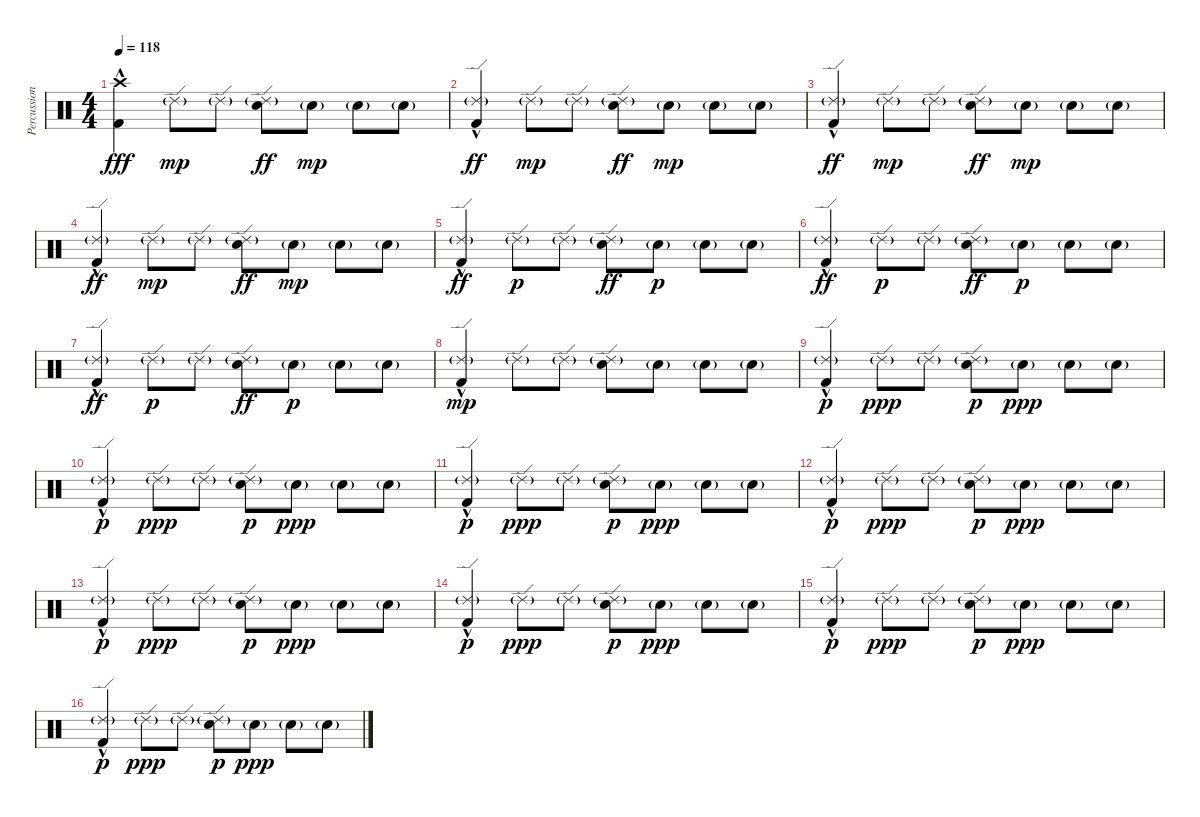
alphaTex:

\track ("Percussion" "Percussion") {instrument percussion}
\staff {score}
\articulation defaults
\ts (4 4)
\tempo 118
\clef neutral
\ks c
("Crash high (hit)" "Kick (hit) 2"{hac}).4{dy fff} "Ride (edge) 2"{g}.8{dy mp} "Ride (edge) 2"{g}.8 ("Ride (edge) 2"{g} "Electric Snare (hit)").8{dy ff} "Electric Snare (hit)"{g}.8{dy mp} "Electric Snare (hit)"{g}.8 "Electric Snare (hit)"{g}.8 |
("Ride (edge) 2"{g} "Kick (hit) 2"{hac}).4{dy ff} "Ride (edge) 2"{g}.8{dy mp} "Ride (edge) 2"{g}.8 ("Ride (edge) 2"{g} "Electric Snare (hit)").8{dy ff} "Electric Snare (hit)"{g}.8{dy mp} "Electric Snare (hit)"{g}.8 "Electric Snare (hit)"{g}.8 |
("Ride (edge) 2"{g} "Kick (hit) 2"{hac}).4{dy ff} "Ride (edge) 2"{g}.8{dy mp} "Ride (edge) 2"{g}.8 ("Ride (edge) 2"{g} "Electric Snare (hit)").8{dy ff} "Electric Snare (hit)"{g}.8{dy mp} "Electric Snare (hit)"{g}.8 "Electric Snare (hit)"{g}.8 |
("Ride (edge) 2"{g} "Kick (hit) 2"{hac}).4{dy ff} "Ride (edge) 2"{g}.8{dy mp} "Ride (edge) 2"{g}.8 ("Ride (edge) 2"{g} "Electric Snare (hit)").8{dy ff} "Electric Snare (hit)"{g}.8{dy mp} "Electric Snare (hit)"{g}.8 "Electric Snare (hit)"{g}.8 |
("Ride (edge) 2"{g} "Kick (hit) 2"{hac}).4{dy ff} "Ride (edge) 2"{g}.8{dy p} "Ride (edge) 2"{g}.8 ("Ride (edge) 2"{g} "Electric Snare (hit)").8{dy ff} "Electric Snare (hit)"{g}.8{dy p} "Electric Snare (hit)"{g}.8 "Electric Snare (hit)"{g}.8 |
("Ride (edge) 2"{g} "Kick (hit) 2"{hac}).4{dy ff} "Ride (edge) 2"{g}.8{dy p} "Ride (edge) 2"{g}.8 ("Ride (edge) 2"{g} "Electric Snare (hit)").8{dy ff} "Electric Snare (hit)"{g}.8{dy p} "Electric Snare (hit)"{g}.8 "Electric Snare (hit)"{g}.8 |
("Ride (edge) 2"{g} "Kick (hit) 2"{hac}).4{dy ff} "Ride (edge) 2"{g}.8{dy p} "Ride (edge) 2"{g}.8 ("Ride (edge) 2"{g} "Electric Snare (hit)").8{dy ff} "Electric Snare (hit)"{g}.8{dy p} "Electric Snare (hit)"{g}.8 "Electric Snare (hit)"{g}.8 |
("Ride (edge) 2"{g} "Kick (hit) 2"{hac}).4{dy mp} "Ride (edge) 2"{g}.8 "Ride (edge) 2"{g}.8 ("Ride (edge) 2"{g} "Electric Snare (hit)").8 "Electric Snare (hit)"{g}.8 "Electric Snare (hit)"{g}.8 "Electric Snare (hit)"{g}.8 |
("Ride (edge) 2"{g} "Kick (hit) 2"{hac}).4{dy p} "Ride (edge) 2"{g}.8{dy ppp} "Ride (edge) 2"{g}.8 ("Ride (edge) 2"{g} "Electric Snare (hit)").8{dy p} "Electric Snare (hit)"{g}.8{dy ppp} "Electric Snare (hit)"{g}.8 "Electric Snare (hit)"{g}.8 |
("Ride (edge) 2"{g} "Kick (hit) 2"{hac}).4{dy p} "Ride (edge) 2"{g}.8{dy ppp} "Ride (edge) 2"{g}.8 ("Ride (edge) 2"{g} "Electric Snare (hit)").8{dy p} "Electric Snare (hit)"{g}.8{dy ppp} "Electric Snare (hit)"{g}.8 "Electric Snare (hit)"{g}.8 |
("Ride (edge) 2"{g} "Kick (hit) 2"{hac}).4{dy p} "Ride (edge) 2"{g}.8{dy ppp} "Ride (edge) 2"{g}.8 ("Ride (edge) 2"{g} "Electric Snare (hit)").8{dy p} "Electric Snare (hit)"{g}.8{dy ppp} "Electric Snare (hit)"{g}.8 "Electric Snare (hit)"{g}.8 |
("Ride (edge) 2"{g} "Kick (hit) 2"{hac}).4{dy p} "Ride (edge) 2"{g}.8{dy ppp} "Ride (edge) 2"{g}.8 ("Ride (edge) 2"{g} "Electric Snare (hit)").8{dy p} "Electric Snare (hit)"{g}.8{dy ppp} "Electric Snare (hit)"{g}.8 "Electric Snare (hit)"{g}.8 |
("Ride (edge) 2"{g} "Kick (hit) 2"{hac}).4{dy p} "Ride (edge) 2"{g}.8{dy ppp} "Ride (edge) 2"{g}.8 ("Ride (edge) 2"{g} "Electric Snare (hit)").8{dy p} "Electric Snare (hit)"{g}.8{dy ppp} "Electric Snare (hit)"{g}.8 "Electric Snare (hit)"{g}.8 |
("Ride (edge) 2"{g} "Kick (hit) 2"{hac}).4{dy p} "Ride (edge) 2"{g}.8{dy ppp} "Ride (edge) 2"{g}.8 ("Ride (edge) 2"{g} "Electric Snare (hit)").8{dy p} "Electric Snare (hit)"{g}.8{dy ppp} "Electric Snare (hit)"{g}.8 "Electric Snare (hit)"{g}.8 |
("Ride (edge) 2"{g} "Kick (hit) 2"{hac}).4{dy p} "Ride (edge) 2"{g}.8{dy ppp} "Ride (edge) 2"{g}.8 ("Ride (edge) 2"{g} "Electric Snare (hit)").8{dy p} "Electric Snare (hit)"{g}.8{dy ppp} "Electric Snare (hit)"{g}.8 "Electric Snare (hit)"{g}.8 |
("Ride (edge) 2"{g} "Kick (hit) 2"{hac}).4{dy p} "Ride (edge) 2"{g}.8{dy ppp} "Ride (edge) 2"{g}.8 ("Ride (edge) 2"{g} "Electric Snare (hit)").8{dy p} "Electric Snare (hit)"{g}.8{dy ppp} "Electric Snare (hit)"{g}.8 "Electric Snare (hit)"{g}.8
